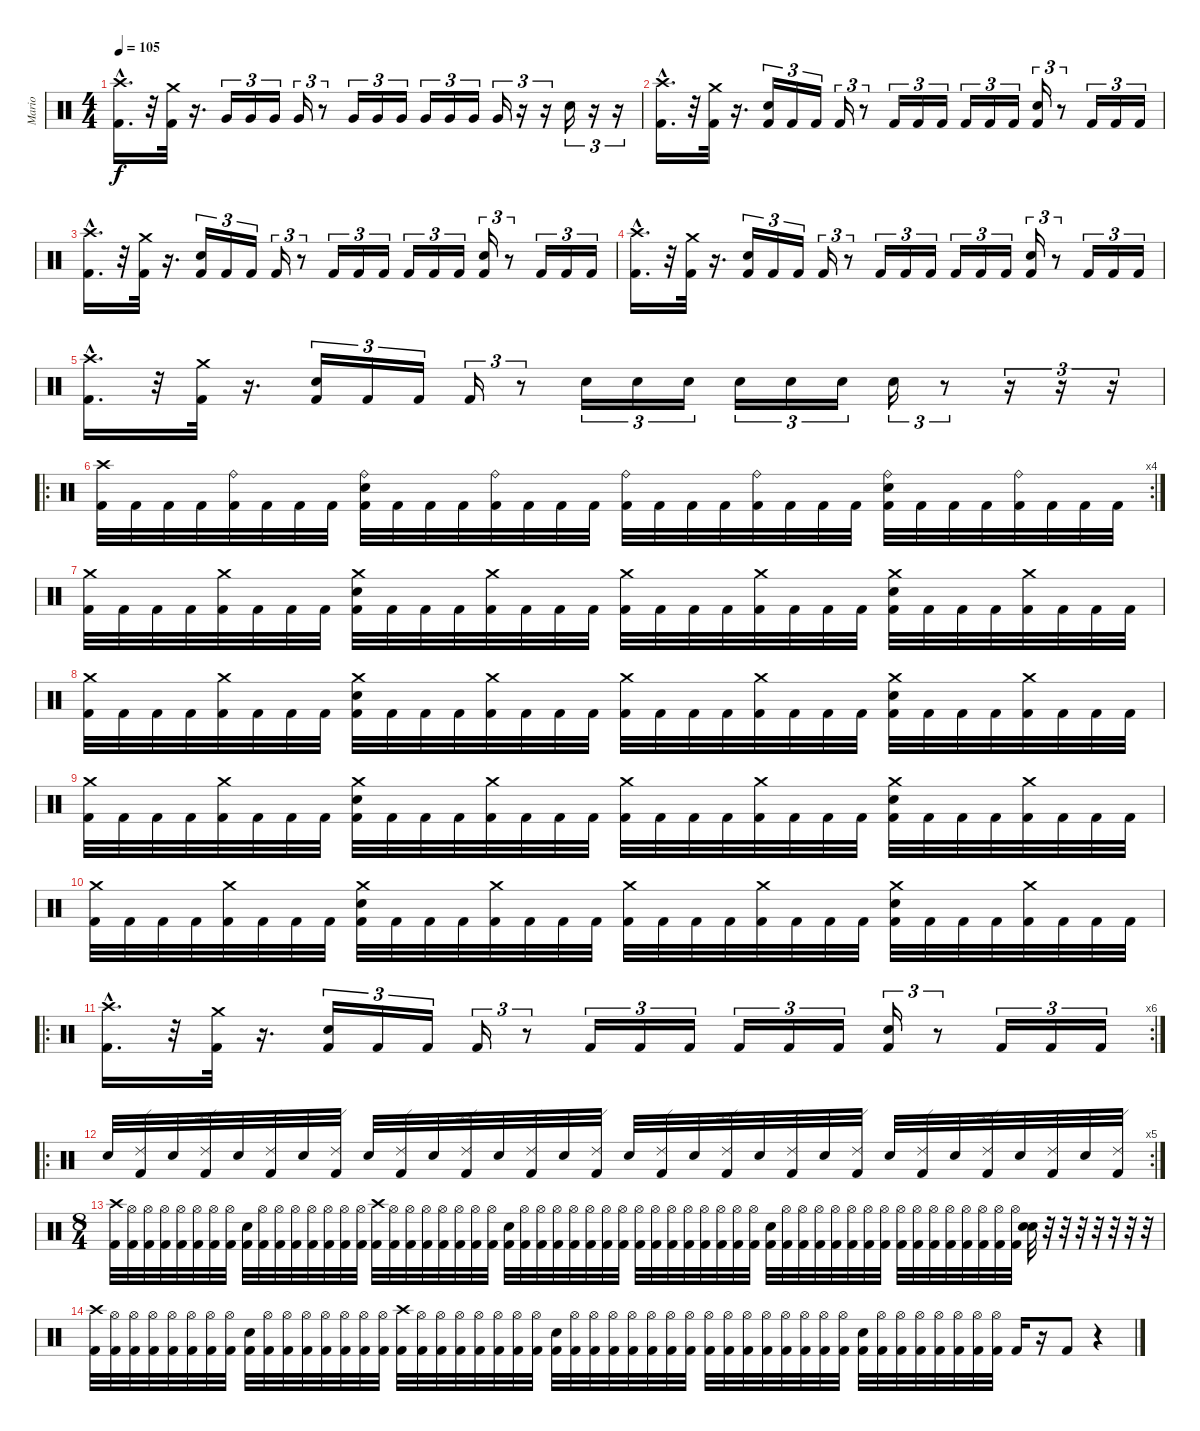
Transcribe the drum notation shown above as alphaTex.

\track ("Mario" "Mario") {instrument percussion}
\staff {score}
\articulation defaults
\ts (4 4)
\tempo 105
\clef neutral
\ks c
("Crash high (hit)"{hac} "Kick (hit) 2"{hac}).16{d dy f} r.32 ("Crash medium (hit)" "Kick (hit) 2").32 r.16{d} "Very Low Tom (hit)".16{tu (3 2)} "Very Low Tom (hit)".16{tu (3 2)} "Very Low Tom (hit)".16{tu (3 2)} "Very Low Tom (hit)".16{tu (3 2)} r.8{tu (3 2)} "Very Low Tom (hit)".16{tu (3 2)} "Very Low Tom (hit)".16{tu (3 2)} "Very Low Tom (hit)".16{tu (3 2)} "Very Low Tom (hit)".16{tu (3 2)} "Very Low Tom (hit)".16{tu (3 2)} "Very Low Tom (hit)".16{tu (3 2)} "Very Low Tom (hit)".16{tu (3 2)} r.16{tu (3 2)} r.16{tu (3 2)} "Snare (hit) 2".16{tu (3 2)} r.16{tu (3 2)} r.16{tu (3 2)} |
("Crash high (hit)"{hac} "Kick (hit) 2"{hac}).16{d} r.32 ("Crash medium (hit)" "Kick (hit) 2").32 r.16{d} ("Snare (hit) 2" "Kick (hit) 2").16{tu (3 2)} "Kick (hit) 2".16{tu (3 2)} "Kick (hit) 2".16{tu (3 2)} "Kick (hit) 2".16{tu (3 2)} r.8{tu (3 2)} "Kick (hit) 2".16{tu (3 2)} "Kick (hit) 2".16{tu (3 2)} "Kick (hit) 2".16{tu (3 2)} "Kick (hit) 2".16{tu (3 2)} "Kick (hit) 2".16{tu (3 2)} "Kick (hit) 2".16{tu (3 2)} ("Snare (hit) 2" "Kick (hit) 2").16{tu (3 2)} r.8{tu (3 2)} "Kick (hit) 2".16{tu (3 2)} "Kick (hit) 2".16{tu (3 2)} "Kick (hit) 2".16{tu (3 2)} |
("Crash high (hit)"{hac} "Kick (hit) 2"{hac}).16{d} r.32 ("Crash medium (hit)" "Kick (hit) 2").32 r.16{d} ("Snare (hit) 2" "Kick (hit) 2").16{tu (3 2)} "Kick (hit) 2".16{tu (3 2)} "Kick (hit) 2".16{tu (3 2)} "Kick (hit) 2".16{tu (3 2)} r.8{tu (3 2)} "Kick (hit) 2".16{tu (3 2)} "Kick (hit) 2".16{tu (3 2)} "Kick (hit) 2".16{tu (3 2)} "Kick (hit) 2".16{tu (3 2)} "Kick (hit) 2".16{tu (3 2)} "Kick (hit) 2".16{tu (3 2)} ("Snare (hit) 2" "Kick (hit) 2").16{tu (3 2)} r.8{tu (3 2)} "Kick (hit) 2".16{tu (3 2)} "Kick (hit) 2".16{tu (3 2)} "Kick (hit) 2".16{tu (3 2)} |
("Crash high (hit)"{hac} "Kick (hit) 2"{hac}).16{d} r.32 ("Crash medium (hit)" "Kick (hit) 2").32 r.16{d} ("Snare (hit) 2" "Kick (hit) 2").16{tu (3 2)} "Kick (hit) 2".16{tu (3 2)} "Kick (hit) 2".16{tu (3 2)} "Kick (hit) 2".16{tu (3 2)} r.8{tu (3 2)} "Kick (hit) 2".16{tu (3 2)} "Kick (hit) 2".16{tu (3 2)} "Kick (hit) 2".16{tu (3 2)} "Kick (hit) 2".16{tu (3 2)} "Kick (hit) 2".16{tu (3 2)} "Kick (hit) 2".16{tu (3 2)} ("Snare (hit) 2" "Kick (hit) 2").16{tu (3 2)} r.8{tu (3 2)} "Kick (hit) 2".16{tu (3 2)} "Kick (hit) 2".16{tu (3 2)} "Kick (hit) 2".16{tu (3 2)} |
("Crash high (hit)"{hac} "Kick (hit) 2"{hac}).16{d} r.32 ("Crash medium (hit)" "Kick (hit) 2").32 r.16{d} ("Snare (hit) 2" "Kick (hit) 2").16{tu (3 2)} "Kick (hit) 2".16{tu (3 2)} "Kick (hit) 2".16{tu (3 2)} "Kick (hit) 2".16{tu (3 2)} r.8{tu (3 2)} "Snare (hit) 2".16{tu (3 2)} "Snare (hit) 2".16{tu (3 2)} "Snare (hit) 2".16{tu (3 2)} "Snare (hit) 2".16{tu (3 2)} "Snare (hit) 2".16{tu (3 2)} "Snare (hit) 2".16{tu (3 2)} "Snare (hit) 2".16{tu (3 2)} r.8{tu (3 2)} r.16{tu (3 2)} r.16{tu (3 2)} r.16{tu (3 2)} |
\ro
\rc 4
("Crash high (hit)" "Kick (hit) 2").32 "Kick (hit) 2".32 "Kick (hit) 2".32 "Kick (hit) 2".32 ("Ride (bell)" "Kick (hit) 2").32 "Kick (hit) 2".32 "Kick (hit) 2".32 "Kick (hit) 2".32 ("Ride (bell)" "Snare (hit) 2" "Kick (hit) 2").32 "Kick (hit) 2".32 "Kick (hit) 2".32 "Kick (hit) 2".32 ("Ride (bell)" "Kick (hit) 2").32 "Kick (hit) 2".32 "Kick (hit) 2".32 "Kick (hit) 2".32 ("Ride (bell)" "Kick (hit) 2").32 "Kick (hit) 2".32 "Kick (hit) 2".32 "Kick (hit) 2".32 ("Ride (bell)" "Kick (hit) 2").32 "Kick (hit) 2".32 "Kick (hit) 2".32 "Kick (hit) 2".32 ("Ride (bell)" "Snare (hit) 2" "Kick (hit) 2").32 "Kick (hit) 2".32 "Kick (hit) 2".32 "Kick (hit) 2".32 ("Ride (bell)" "Kick (hit) 2").32 "Kick (hit) 2".32 "Kick (hit) 2".32 "Kick (hit) 2".32 |
("Crash medium (hit)" "Kick (hit) 2").32 "Kick (hit) 2".32 "Kick (hit) 2".32 "Kick (hit) 2".32 ("Crash medium (hit)" "Kick (hit) 2").32 "Kick (hit) 2".32 "Kick (hit) 2".32 "Kick (hit) 2".32 ("Crash medium (hit)" "Snare (hit) 2" "Kick (hit) 2").32 "Kick (hit) 2".32 "Kick (hit) 2".32 "Kick (hit) 2".32 ("Crash medium (hit)" "Kick (hit) 2").32 "Kick (hit) 2".32 "Kick (hit) 2".32 "Kick (hit) 2".32 ("Crash medium (hit)" "Kick (hit) 2").32 "Kick (hit) 2".32 "Kick (hit) 2".32 "Kick (hit) 2".32 ("Crash medium (hit)" "Kick (hit) 2").32 "Kick (hit) 2".32 "Kick (hit) 2".32 "Kick (hit) 2".32 ("Crash medium (hit)" "Snare (hit) 2" "Kick (hit) 2").32 "Kick (hit) 2".32 "Kick (hit) 2".32 "Kick (hit) 2".32 ("Crash medium (hit)" "Kick (hit) 2").32 "Kick (hit) 2".32 "Kick (hit) 2".32 "Kick (hit) 2".32 |
("Crash medium (hit)" "Kick (hit) 2").32 "Kick (hit) 2".32 "Kick (hit) 2".32 "Kick (hit) 2".32 ("Crash medium (hit)" "Kick (hit) 2").32 "Kick (hit) 2".32 "Kick (hit) 2".32 "Kick (hit) 2".32 ("Crash medium (hit)" "Snare (hit) 2" "Kick (hit) 2").32 "Kick (hit) 2".32 "Kick (hit) 2".32 "Kick (hit) 2".32 ("Crash medium (hit)" "Kick (hit) 2").32 "Kick (hit) 2".32 "Kick (hit) 2".32 "Kick (hit) 2".32 ("Crash medium (hit)" "Kick (hit) 2").32 "Kick (hit) 2".32 "Kick (hit) 2".32 "Kick (hit) 2".32 ("Crash medium (hit)" "Kick (hit) 2").32 "Kick (hit) 2".32 "Kick (hit) 2".32 "Kick (hit) 2".32 ("Crash medium (hit)" "Snare (hit) 2" "Kick (hit) 2").32 "Kick (hit) 2".32 "Kick (hit) 2".32 "Kick (hit) 2".32 ("Crash medium (hit)" "Kick (hit) 2").32 "Kick (hit) 2".32 "Kick (hit) 2".32 "Kick (hit) 2".32 |
("Crash medium (hit)" "Kick (hit) 2").32 "Kick (hit) 2".32 "Kick (hit) 2".32 "Kick (hit) 2".32 ("Crash medium (hit)" "Kick (hit) 2").32 "Kick (hit) 2".32 "Kick (hit) 2".32 "Kick (hit) 2".32 ("Crash medium (hit)" "Snare (hit) 2" "Kick (hit) 2").32 "Kick (hit) 2".32 "Kick (hit) 2".32 "Kick (hit) 2".32 ("Crash medium (hit)" "Kick (hit) 2").32 "Kick (hit) 2".32 "Kick (hit) 2".32 "Kick (hit) 2".32 ("Crash medium (hit)" "Kick (hit) 2").32 "Kick (hit) 2".32 "Kick (hit) 2".32 "Kick (hit) 2".32 ("Crash medium (hit)" "Kick (hit) 2").32 "Kick (hit) 2".32 "Kick (hit) 2".32 "Kick (hit) 2".32 ("Crash medium (hit)" "Snare (hit) 2" "Kick (hit) 2").32 "Kick (hit) 2".32 "Kick (hit) 2".32 "Kick (hit) 2".32 ("Crash medium (hit)" "Kick (hit) 2").32 "Kick (hit) 2".32 "Kick (hit) 2".32 "Kick (hit) 2".32 |
("Crash medium (hit)" "Kick (hit) 2").32 "Kick (hit) 2".32 "Kick (hit) 2".32 "Kick (hit) 2".32 ("Crash medium (hit)" "Kick (hit) 2").32 "Kick (hit) 2".32 "Kick (hit) 2".32 "Kick (hit) 2".32 ("Crash medium (hit)" "Snare (hit) 2" "Kick (hit) 2").32 "Kick (hit) 2".32 "Kick (hit) 2".32 "Kick (hit) 2".32 ("Crash medium (hit)" "Kick (hit) 2").32 "Kick (hit) 2".32 "Kick (hit) 2".32 "Kick (hit) 2".32 ("Crash medium (hit)" "Kick (hit) 2").32 "Kick (hit) 2".32 "Kick (hit) 2".32 "Kick (hit) 2".32 ("Crash medium (hit)" "Kick (hit) 2").32 "Kick (hit) 2".32 "Kick (hit) 2".32 "Kick (hit) 2".32 ("Crash medium (hit)" "Snare (hit) 2" "Kick (hit) 2").32 "Kick (hit) 2".32 "Kick (hit) 2".32 "Kick (hit) 2".32 ("Crash medium (hit)" "Kick (hit) 2").32 "Kick (hit) 2".32 "Kick (hit) 2".32 "Kick (hit) 2".32 |
\ro
\rc 6
("Crash high (hit)"{hac} "Kick (hit) 2"{hac}).16{d} r.32 ("Crash medium (hit)" "Kick (hit) 2").32 r.16{d} ("Snare (hit) 2" "Kick (hit) 2").16{tu (3 2)} "Kick (hit) 2".16{tu (3 2)} "Kick (hit) 2".16{tu (3 2)} "Kick (hit) 2".16{tu (3 2)} r.8{tu (3 2)} "Kick (hit) 2".16{tu (3 2)} "Kick (hit) 2".16{tu (3 2)} "Kick (hit) 2".16{tu (3 2)} "Kick (hit) 2".16{tu (3 2)} "Kick (hit) 2".16{tu (3 2)} "Kick (hit) 2".16{tu (3 2)} ("Snare (hit) 2" "Kick (hit) 2").16{tu (3 2)} r.8{tu (3 2)} "Kick (hit) 2".16{tu (3 2)} "Kick (hit) 2".16{tu (3 2)} "Kick (hit) 2".16{tu (3 2)} |
\ro
\rc 5 "Snare (hit) 2".32
("Ride (edge) 2" "Kick (hit) 2").32 "Snare (hit) 2".32 ("Ride (edge) 2" "Kick (hit) 2").32 "Snare (hit) 2".32 ("Ride (edge) 2" "Kick (hit) 2").32 "Snare (hit) 2".32 ("Ride (edge) 2" "Kick (hit) 2").32 "Snare (hit) 2".32 ("Ride (edge) 2" "Kick (hit) 2").32 "Snare (hit) 2".32 ("Ride (edge) 2" "Kick (hit) 2").32 "Snare (hit) 2".32 ("Ride (edge) 2" "Kick (hit) 2").32 "Snare (hit) 2".32 ("Ride (edge) 2" "Kick (hit) 2").32 "Snare (hit) 2".32 ("Ride (edge) 2" "Kick (hit) 2").32 "Snare (hit) 2".32 ("Ride (edge) 2" "Kick (hit) 2").32 "Snare (hit) 2".32 ("Ride (edge) 2" "Kick (hit) 2").32 "Snare (hit) 2".32 ("Ride (edge) 2" "Kick (hit) 2").32 "Snare (hit) 2".32 ("Ride (edge) 2" "Kick (hit) 2").32 "Snare (hit) 2".32 ("Ride (edge) 2" "Kick (hit) 2").32 "Snare (hit) 2".32 ("Ride (edge) 2" "Kick (hit) 2").32 "Snare (hit) 2".32 ("Ride (edge) 2" "Kick (hit) 2").32 |
\ts (8 4)
("Crash high (hit)" "Kick (hit) 2").32 ("Hi-Hat (open)" "Kick (hit) 2").32 ("Hi-Hat (open)" "Kick (hit) 2").32 ("Hi-Hat (open)" "Kick (hit) 2").32 ("Hi-Hat (open)" "Kick (hit) 2").32 ("Hi-Hat (open)" "Kick (hit) 2").32 ("Hi-Hat (open)" "Kick (hit) 2").32 ("Hi-Hat (open)" "Kick (hit) 2").32 ("Snare (hit) 2" "Kick (hit) 2").32 ("Hi-Hat (open)" "Kick (hit) 2").32 ("Hi-Hat (open)" "Kick (hit) 2").32 ("Hi-Hat (open)" "Kick (hit) 2").32 ("Hi-Hat (open)" "Kick (hit) 2").32 ("Hi-Hat (open)" "Kick (hit) 2").32 ("Hi-Hat (open)" "Kick (hit) 2").32 ("Hi-Hat (open)" "Kick (hit) 2").32 ("Crash high (hit)" "Kick (hit) 2").32 ("Hi-Hat (open)" "Kick (hit) 2").32 ("Hi-Hat (open)" "Kick (hit) 2").32 ("Hi-Hat (open)" "Kick (hit) 2").32 ("Hi-Hat (open)" "Kick (hit) 2").32 ("Hi-Hat (open)" "Kick (hit) 2").32 ("Hi-Hat (open)" "Kick (hit) 2").32 ("Hi-Hat (open)" "Kick (hit) 2").32 ("Snare (hit) 2" "Kick (hit) 2").32 ("Hi-Hat (open)" "Kick (hit) 2").32 ("Hi-Hat (open)" "Kick (hit) 2").32 ("Hi-Hat (open)" "Kick (hit) 2").32 ("Hi-Hat (open)" "Kick (hit) 2").32 ("Hi-Hat (open)" "Kick (hit) 2").32 ("Hi-Hat (open)" "Kick (hit) 2").32 ("Hi-Hat (open)" "Kick (hit) 2").32 ("Hi-Hat (open)" "Kick (hit) 2").32 ("Hi-Hat (open)" "Kick (hit) 2").32 ("Hi-Hat (open)" "Kick (hit) 2").32 ("Hi-Hat (open)" "Kick (hit) 2").32 ("Hi-Hat (open)" "Kick (hit) 2").32 ("Hi-Hat (open)" "Kick (hit) 2").32 ("Hi-Hat (open)" "Kick (hit) 2").32 ("Hi-Hat (open)" "Kick (hit) 2").32 ("Snare (hit) 2" "Kick (hit) 2").32 ("Hi-Hat (open)" "Kick (hit) 2").32 ("Hi-Hat (open)" "Kick (hit) 2").32 ("Hi-Hat (open)" "Kick (hit) 2").32 ("Hi-Hat (open)" "Kick (hit) 2").32 ("Hi-Hat (open)" "Kick (hit) 2").32 ("Hi-Hat (open)" "Kick (hit) 2").32 ("Hi-Hat (open)" "Kick (hit) 2").32 ("Hi-Hat (open)" "Kick (hit) 2").32 ("Hi-Hat (open)" "Kick (hit) 2").32 ("Hi-Hat (open)" "Kick (hit) 2").32 ("Hi-Hat (open)" "Kick (hit) 2").32 ("Hi-Hat (open)" "Kick (hit) 2").32 ("Hi-Hat (open)" "Kick (hit) 2").32 ("Hi-Hat (open)" "Kick (hit) 2").32 ("Hi-Hat (open)" "Kick (hit) 2").32 ("Snare (hit) 2" "Snare (hit) 2").32 r.32 r.32 r.32 r.32 r.32 r.32 r.32 |
("Crash high (hit)" "Kick (hit) 2").32 ("Hi-Hat (open)" "Kick (hit) 2").32 ("Hi-Hat (open)" "Kick (hit) 2").32 ("Hi-Hat (open)" "Kick (hit) 2").32 ("Hi-Hat (open)" "Kick (hit) 2").32 ("Hi-Hat (open)" "Kick (hit) 2").32 ("Hi-Hat (open)" "Kick (hit) 2").32 ("Hi-Hat (open)" "Kick (hit) 2").32 ("Snare (hit) 2" "Kick (hit) 2").32 ("Hi-Hat (open)" "Kick (hit) 2").32 ("Hi-Hat (open)" "Kick (hit) 2").32 ("Hi-Hat (open)" "Kick (hit) 2").32 ("Hi-Hat (open)" "Kick (hit) 2").32 ("Hi-Hat (open)" "Kick (hit) 2").32 ("Hi-Hat (open)" "Kick (hit) 2").32 ("Hi-Hat (open)" "Kick (hit) 2").32 ("Crash high (hit)" "Kick (hit) 2").32 ("Hi-Hat (open)" "Kick (hit) 2").32 ("Hi-Hat (open)" "Kick (hit) 2").32 ("Hi-Hat (open)" "Kick (hit) 2").32 ("Hi-Hat (open)" "Kick (hit) 2").32 ("Hi-Hat (open)" "Kick (hit) 2").32 ("Hi-Hat (open)" "Kick (hit) 2").32 ("Hi-Hat (open)" "Kick (hit) 2").32 ("Snare (hit) 2" "Kick (hit) 2").32 ("Hi-Hat (open)" "Kick (hit) 2").32 ("Hi-Hat (open)" "Kick (hit) 2").32 ("Hi-Hat (open)" "Kick (hit) 2").32 ("Hi-Hat (open)" "Kick (hit) 2").32 ("Hi-Hat (open)" "Kick (hit) 2").32 ("Hi-Hat (open)" "Kick (hit) 2").32 ("Hi-Hat (open)" "Kick (hit) 2").32 ("Hi-Hat (open)" "Kick (hit) 2").32 ("Hi-Hat (open)" "Kick (hit) 2").32 ("Hi-Hat (open)" "Kick (hit) 2").32 ("Hi-Hat (open)" "Kick (hit) 2").32 ("Hi-Hat (open)" "Kick (hit) 2").32 ("Hi-Hat (open)" "Kick (hit) 2").32 ("Hi-Hat (open)" "Kick (hit) 2").32 ("Hi-Hat (open)" "Kick (hit) 2").32 ("Snare (hit) 2" "Kick (hit) 2").32 ("Hi-Hat (open)" "Kick (hit) 2").32 ("Hi-Hat (open)" "Kick (hit) 2").32 ("Hi-Hat (open)" "Kick (hit) 2").32 ("Hi-Hat (open)" "Kick (hit) 2").32 ("Hi-Hat (open)" "Kick (hit) 2").32 ("Hi-Hat (open)" "Kick (hit) 2").32 ("Hi-Hat (open)" "Kick (hit) 2").32 "Kick (hit) 2".16 r.16 "Kick (hit) 2".8 r.4
